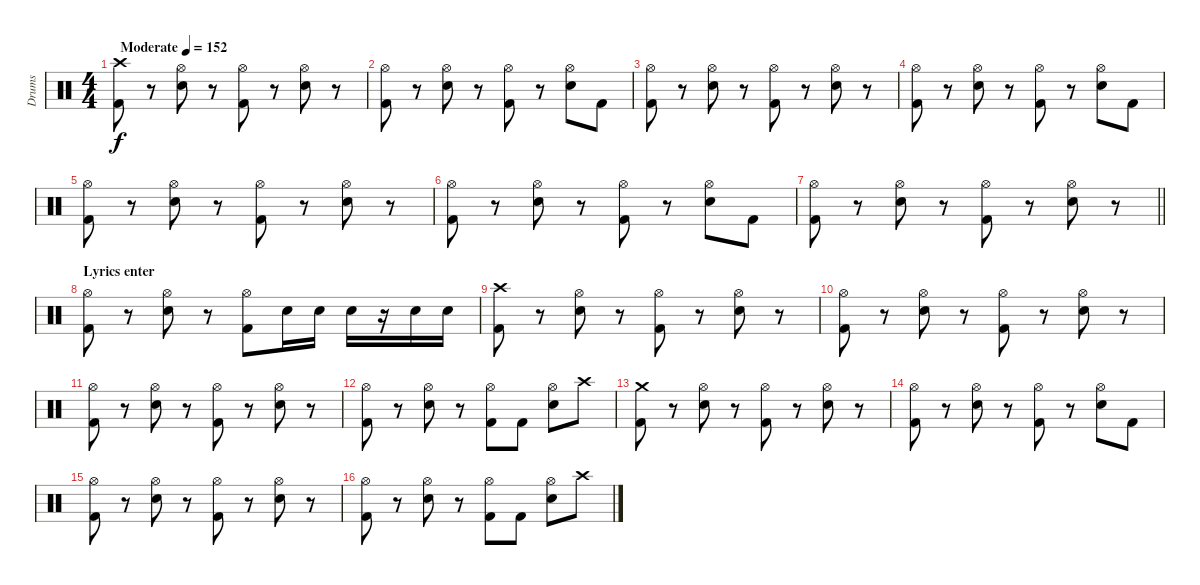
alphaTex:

\track ("Drums" "Drums") {instrument percussion}
\staff {score}
\articulation defaults
\ts (4 4)
\tempo (152 "Moderate")
\clef neutral
\ks c
("Crash high (hit)" "Kick (hit) 2").8{dy f} r.8 ("Hi-Hat (open)" "Snare (hit) 2").8 r.8 ("Hi-Hat (open)" "Kick (hit) 2").8 r.8 ("Hi-Hat (open)" "Snare (hit) 2").8 r.8 |
("Hi-Hat (open)" "Kick (hit) 2").8 r.8 ("Hi-Hat (open)" "Snare (hit) 2").8 r.8 ("Hi-Hat (open)" "Kick (hit) 2").8 r.8 ("Hi-Hat (open)" "Snare (hit) 2").8 "Kick (hit) 2".8 |
("Hi-Hat (open)" "Kick (hit) 2").8 r.8 ("Hi-Hat (open)" "Snare (hit) 2").8 r.8 ("Hi-Hat (open)" "Kick (hit) 2").8 r.8 ("Hi-Hat (open)" "Snare (hit) 2").8 r.8 |
("Hi-Hat (open)" "Kick (hit) 2").8 r.8 ("Hi-Hat (open)" "Snare (hit) 2").8 r.8 ("Hi-Hat (open)" "Kick (hit) 2").8 r.8 ("Hi-Hat (open)" "Snare (hit) 2").8 "Kick (hit) 2".8 |
("Hi-Hat (open)" "Kick (hit) 2").8 r.8 ("Hi-Hat (open)" "Snare (hit) 2").8 r.8 ("Hi-Hat (open)" "Kick (hit) 2").8 r.8 ("Hi-Hat (open)" "Snare (hit) 2").8 r.8 |
("Hi-Hat (open)" "Kick (hit) 2").8 r.8 ("Hi-Hat (open)" "Snare (hit) 2").8 r.8 ("Hi-Hat (open)" "Kick (hit) 2").8 r.8 ("Hi-Hat (open)" "Snare (hit) 2").8 "Kick (hit) 2".8 |
\barLineRight lightlight
("Hi-Hat (open)" "Kick (hit) 2").8 r.8 ("Hi-Hat (open)" "Snare (hit) 2").8 r.8 ("Hi-Hat (open)" "Kick (hit) 2").8 r.8 ("Hi-Hat (open)" "Snare (hit) 2").8 r.8 |
\section ("" "Lyrics enter")
("Hi-Hat (open)" "Kick (hit) 2").8 r.8 ("Hi-Hat (open)" "Snare (hit) 2").8 r.8 ("Hi-Hat (open)" "Kick (hit) 2").8 "Snare (hit) 2".16 "Snare (hit) 2".16 "Snare (hit) 2".16 r.16 "Snare (hit) 2".16 "Snare (hit) 2".16 |
("Crash high (hit)" "Kick (hit) 2").8 r.8 ("Hi-Hat (open)" "Snare (hit) 2").8 r.8 ("Hi-Hat (open)" "Kick (hit) 2").8 r.8 ("Hi-Hat (open)" "Snare (hit) 2").8 r.8 |
("Hi-Hat (open)" "Kick (hit) 2").8 r.8 ("Hi-Hat (open)" "Snare (hit) 2").8 r.8 ("Hi-Hat (open)" "Kick (hit) 2").8 r.8 ("Hi-Hat (open)" "Snare (hit) 2").8 r.8 |
("Hi-Hat (open)" "Kick (hit) 2").8 r.8 ("Hi-Hat (open)" "Snare (hit) 2").8 r.8 ("Hi-Hat (open)" "Kick (hit) 2").8 r.8 ("Hi-Hat (open)" "Snare (hit) 2").8 r.8 |
("Hi-Hat (open)" "Kick (hit) 2").8 r.8 ("Hi-Hat (open)" "Snare (hit) 2").8 r.8 ("Hi-Hat (open)" "Kick (hit) 2").8 "Kick (hit) 2".8 ("Hi-Hat (open)" "Snare (hit) 2").8 "Crash high (hit)".8 |
("Crash medium (hit)" "Kick (hit) 2").8 r.8 ("Hi-Hat (open)" "Snare (hit) 2").8 r.8 ("Hi-Hat (open)" "Kick (hit) 2").8 r.8 ("Hi-Hat (open)" "Snare (hit) 2").8 r.8 |
("Hi-Hat (open)" "Kick (hit) 2").8 r.8 ("Hi-Hat (open)" "Snare (hit) 2").8 r.8 ("Hi-Hat (open)" "Kick (hit) 2").8 r.8 ("Hi-Hat (open)" "Snare (hit) 2").8 "Kick (hit) 2".8 |
("Hi-Hat (open)" "Kick (hit) 2").8 r.8 ("Hi-Hat (open)" "Snare (hit) 2").8 r.8 ("Hi-Hat (open)" "Kick (hit) 2").8 r.8 ("Hi-Hat (open)" "Snare (hit) 2").8 r.8 |
("Hi-Hat (open)" "Kick (hit) 2").8 r.8 ("Hi-Hat (open)" "Snare (hit) 2").8 r.8 ("Hi-Hat (open)" "Kick (hit) 2").8 "Kick (hit) 2".8 ("Hi-Hat (open)" "Snare (hit) 2").8 "Crash high (hit)".8
